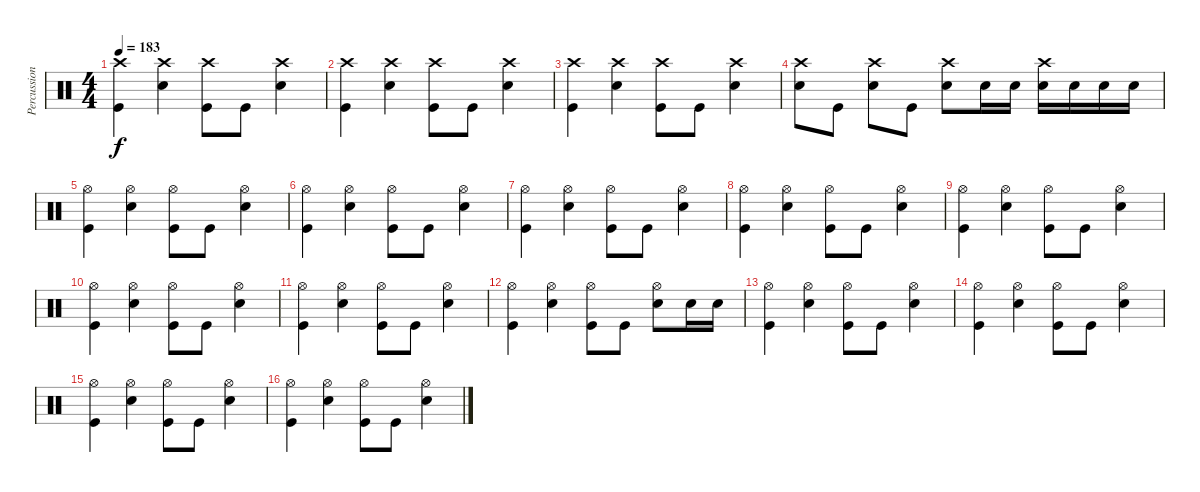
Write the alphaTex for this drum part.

\track ("Percussion" "Percussion") {instrument percussion}
\staff {score}
\articulation defaults
\ts (4 4)
\tempo 183
\clef neutral
\ks c
("Crash high (hit)" "Kick (hit)").4{dy f} ("Crash high (hit)" "Electric Snare (hit)").4 ("Crash high (hit)" "Kick (hit)").8 "Kick (hit)".8 ("Crash high (hit)" "Electric Snare (hit)").4 |
("Crash high (hit)" "Kick (hit)").4 ("Crash high (hit)" "Electric Snare (hit)").4 ("Crash high (hit)" "Kick (hit)").8 "Kick (hit)".8 ("Crash high (hit)" "Electric Snare (hit)").4 |
("Crash high (hit)" "Kick (hit)").4 ("Crash high (hit)" "Electric Snare (hit)").4 ("Crash high (hit)" "Kick (hit)").8 "Kick (hit)".8 ("Crash high (hit)" "Electric Snare (hit)").4 |
("Crash high (hit)" "Electric Snare (hit)").8 "Kick (hit)".8 ("Crash high (hit)" "Electric Snare (hit)").8 "Kick (hit)".8 ("Crash high (hit)" "Electric Snare (hit)").8 "Electric Snare (hit)".16 "Electric Snare (hit)".16 ("Crash high (hit)" "Electric Snare (hit)").16 "Electric Snare (hit)".16 "Electric Snare (hit)".16 "Electric Snare (hit)".16 |
("Hi-Hat (open)" "Kick (hit)").4 ("Hi-Hat (open)" "Electric Snare (hit)").4 ("Hi-Hat (open)" "Kick (hit)").8 "Kick (hit)".8 ("Hi-Hat (open)" "Electric Snare (hit)").4 |
("Hi-Hat (open)" "Kick (hit)").4 ("Hi-Hat (open)" "Electric Snare (hit)").4 ("Hi-Hat (open)" "Kick (hit)").8 "Kick (hit)".8 ("Hi-Hat (open)" "Electric Snare (hit)").4 |
("Hi-Hat (open)" "Kick (hit)").4 ("Hi-Hat (open)" "Electric Snare (hit)").4 ("Hi-Hat (open)" "Kick (hit)").8 "Kick (hit)".8 ("Hi-Hat (open)" "Electric Snare (hit)").4 |
("Hi-Hat (open)" "Kick (hit)").4 ("Hi-Hat (open)" "Electric Snare (hit)").4 ("Hi-Hat (open)" "Kick (hit)").8 "Kick (hit)".8 ("Hi-Hat (open)" "Electric Snare (hit)").4 |
("Hi-Hat (open)" "Kick (hit)").4 ("Hi-Hat (open)" "Electric Snare (hit)").4 ("Hi-Hat (open)" "Kick (hit)").8 "Kick (hit)".8 ("Hi-Hat (open)" "Electric Snare (hit)").4 |
("Hi-Hat (open)" "Kick (hit)").4 ("Hi-Hat (open)" "Electric Snare (hit)").4 ("Hi-Hat (open)" "Kick (hit)").8 "Kick (hit)".8 ("Hi-Hat (open)" "Electric Snare (hit)").4 |
("Hi-Hat (open)" "Kick (hit)").4 ("Hi-Hat (open)" "Electric Snare (hit)").4 ("Hi-Hat (open)" "Kick (hit)").8 "Kick (hit)".8 ("Hi-Hat (open)" "Electric Snare (hit)").4 |
("Hi-Hat (open)" "Kick (hit)").4 ("Hi-Hat (open)" "Electric Snare (hit)").4 ("Hi-Hat (open)" "Kick (hit)").8 "Kick (hit)".8 ("Hi-Hat (open)" "Electric Snare (hit)").8 "Electric Snare (hit)".16 "Electric Snare (hit)".16 |
("Hi-Hat (open)" "Kick (hit)").4 ("Hi-Hat (open)" "Electric Snare (hit)").4 ("Hi-Hat (open)" "Kick (hit)").8 "Kick (hit)".8 ("Hi-Hat (open)" "Electric Snare (hit)").4 |
("Hi-Hat (open)" "Kick (hit)").4 ("Hi-Hat (open)" "Electric Snare (hit)").4 ("Hi-Hat (open)" "Kick (hit)").8 "Kick (hit)".8 ("Hi-Hat (open)" "Electric Snare (hit)").4 |
("Hi-Hat (open)" "Kick (hit)").4 ("Hi-Hat (open)" "Electric Snare (hit)").4 ("Hi-Hat (open)" "Kick (hit)").8 "Kick (hit)".8 ("Hi-Hat (open)" "Electric Snare (hit)").4 |
("Hi-Hat (open)" "Kick (hit)").4 ("Hi-Hat (open)" "Electric Snare (hit)").4 ("Hi-Hat (open)" "Kick (hit)").8 "Kick (hit)".8 ("Hi-Hat (open)" "Electric Snare (hit)").4
